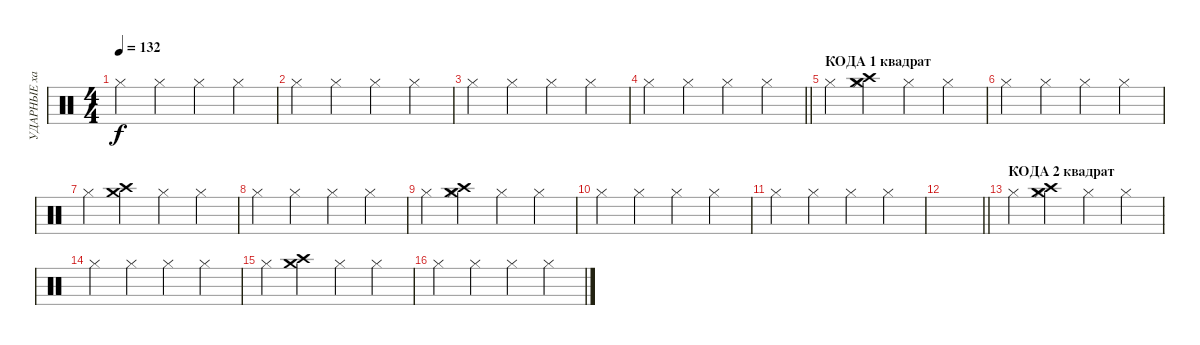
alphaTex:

\track ("УДАРНЫЕ хай хэт" "УДАРНЫЕ ха") {instrument percussion}
\staff {score}
\articulation defaults
\ts (4 4)
\tempo 132
\clef neutral
\ks c "Hi-Hat (closed)".4{dy f} "Hi-Hat (closed)".4 "Hi-Hat (closed)".4 "Hi-Hat (closed)".4
|
"Hi-Hat (closed)".4 "Hi-Hat (closed)".4 "Hi-Hat (closed)".4 "Hi-Hat (closed)".4 |
"Hi-Hat (closed)".4 "Hi-Hat (closed)".4 "Hi-Hat (closed)".4 "Hi-Hat (closed)".4 |
\barLineRight lightlight "Hi-Hat (closed)".4 "Hi-Hat (closed)".4 "Hi-Hat (closed)".4 "Hi-Hat (closed)".4
|
\section ("" "КОДА 1 квадрат")
"Hi-Hat (closed)".4 ("Hi-Hat (closed)" "Crash high (hit)" "Crash medium (hit)").4 "Hi-Hat (closed)".4 "Hi-Hat (closed)".4 |
"Hi-Hat (closed)".4 "Hi-Hat (closed)".4 "Hi-Hat (closed)".4 "Hi-Hat (closed)".4 |
"Hi-Hat (closed)".4 ("Crash high (hit)" "Crash medium (hit)").4 "Hi-Hat (closed)".4 "Hi-Hat (closed)".4 |
"Hi-Hat (closed)".4 "Hi-Hat (closed)".4 "Hi-Hat (closed)".4 "Hi-Hat (closed)".4 |
"Hi-Hat (closed)".4 ("Hi-Hat (closed)" "Crash high (hit)" "Crash medium (hit)").4 "Hi-Hat (closed)".4 "Hi-Hat (closed)".4 |
"Hi-Hat (closed)".4 "Hi-Hat (closed)".4 "Hi-Hat (closed)".4 "Hi-Hat (closed)".4 |
"Hi-Hat (closed)".4 "Hi-Hat (closed)".4 "Hi-Hat (closed)".4 "Hi-Hat (closed)".4 |
\barLineRight lightlight
|
\section ("" "КОДА 2 квадрат")
"Hi-Hat (closed)".4 ("Hi-Hat (closed)" "Crash high (hit)" "Crash medium (hit)").4 "Hi-Hat (closed)".4 "Hi-Hat (closed)".4 |
"Hi-Hat (closed)".4 "Hi-Hat (closed)".4 "Hi-Hat (closed)".4 "Hi-Hat (closed)".4 |
"Hi-Hat (closed)".4 ("Crash high (hit)" "Crash medium (hit)").4 "Hi-Hat (closed)".4 "Hi-Hat (closed)".4 |
"Hi-Hat (closed)".4 "Hi-Hat (closed)".4 "Hi-Hat (closed)".4 "Hi-Hat (closed)".4
